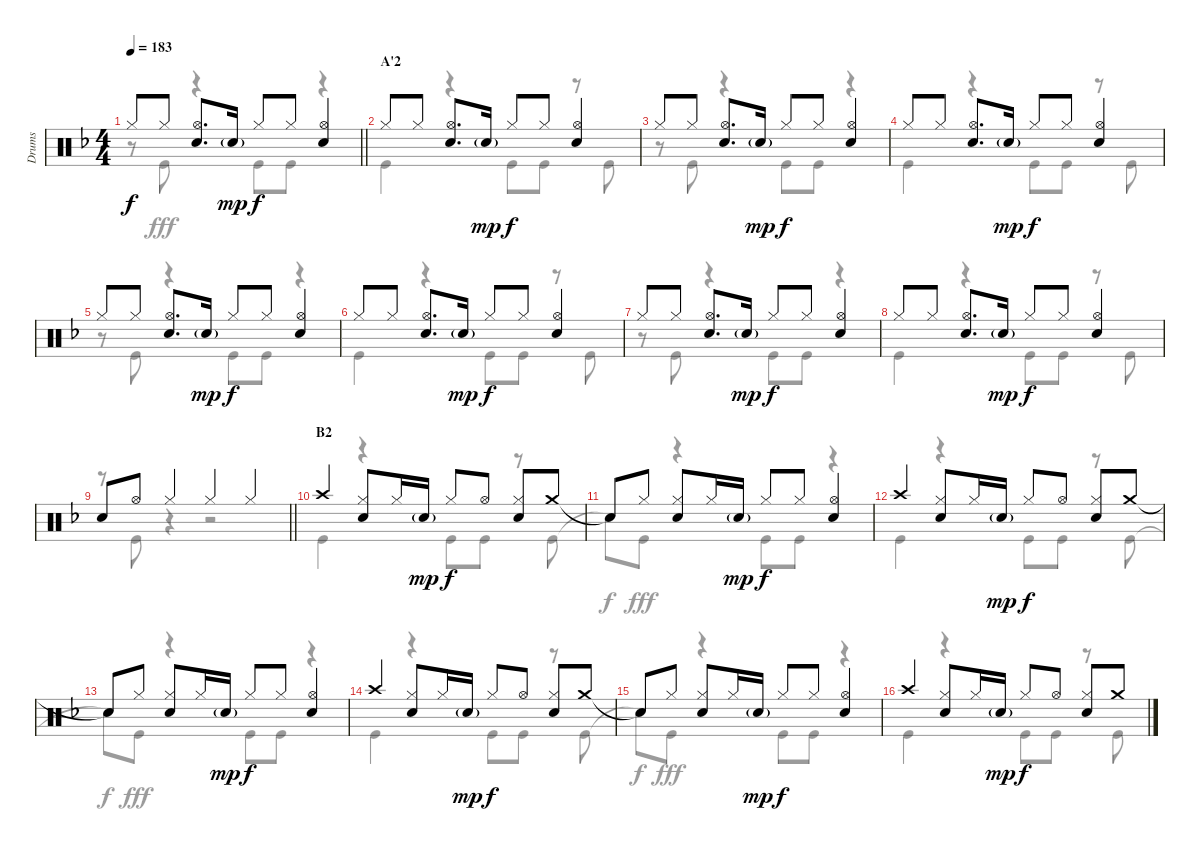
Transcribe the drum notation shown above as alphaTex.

\track ("Drums" "Drums") {instrument percussion}
\staff {score}
\articulation defaults
\voice
\ts (4 4)
\tempo 183
\clef neutral
\barLineRight lightlight
\ks f "Hi-Hat (closed)".8{dy f} "Hi-Hat (closed)".8
("Hi-Hat (open)" "Snare (hit) 2").8{d} "Snare (hit) 2"{g}.16{dy mp} "Hi-Hat (closed)".8{dy f} "Hi-Hat (closed)".8 ("Hi-Hat (open)" "Snare (hit) 2").4 |
\section ("" "A'2")
"Hi-Hat (closed)".8 "Hi-Hat (closed)".8 ("Hi-Hat (open)" "Snare (hit) 2").8{d} "Snare (hit) 2"{g}.16{dy mp} "Hi-Hat (closed)".8{dy f} "Hi-Hat (closed)".8 ("Hi-Hat (open)" "Snare (hit) 2").4 |
"Hi-Hat (closed)".8 "Hi-Hat (closed)".8 ("Hi-Hat (open)" "Snare (hit) 2").8{d} "Snare (hit) 2"{g}.16{dy mp} "Hi-Hat (closed)".8{dy f} "Hi-Hat (closed)".8 ("Hi-Hat (open)" "Snare (hit) 2").4 |
"Hi-Hat (closed)".8 "Hi-Hat (closed)".8 ("Hi-Hat (open)" "Snare (hit) 2").8{d} "Snare (hit) 2"{g}.16{dy mp} "Hi-Hat (closed)".8{dy f} "Hi-Hat (closed)".8 ("Hi-Hat (open)" "Snare (hit) 2").4 |
"Hi-Hat (closed)".8 "Hi-Hat (closed)".8 ("Hi-Hat (open)" "Snare (hit) 2").8{d} "Snare (hit) 2"{g}.16{dy mp} "Hi-Hat (closed)".8{dy f} "Hi-Hat (closed)".8 ("Hi-Hat (open)" "Snare (hit) 2").4 |
"Hi-Hat (closed)".8 "Hi-Hat (closed)".8 ("Hi-Hat (open)" "Snare (hit) 2").8{d} "Snare (hit) 2"{g}.16{dy mp} "Hi-Hat (closed)".8{dy f} "Hi-Hat (closed)".8 ("Hi-Hat (open)" "Snare (hit) 2").4 |
"Hi-Hat (closed)".8 "Hi-Hat (closed)".8 ("Hi-Hat (open)" "Snare (hit) 2").8{d} "Snare (hit) 2"{g}.16{dy mp} "Hi-Hat (closed)".8{dy f} "Hi-Hat (closed)".8 ("Hi-Hat (open)" "Snare (hit) 2").4 |
"Hi-Hat (closed)".8 "Hi-Hat (closed)".8 ("Hi-Hat (open)" "Snare (hit) 2").8{d} "Snare (hit) 2"{g}.16{dy mp} "Hi-Hat (closed)".8{dy f} "Hi-Hat (closed)".8 ("Hi-Hat (open)" "Snare (hit) 2").4 |
\barLineRight lightlight "Snare (hit) 2".8 "Hi-Hat (open)".8 "Hi-Hat (closed)".4 "Hi-Hat (closed)".4 "Hi-Hat (closed)".4
|
\section ("" "B2")
"Crash high (hit)".4 ("Hi-Hat (closed)" "Snare (hit) 2").8 "Hi-Hat (closed)".16 "Snare (hit) 2"{g}.16{dy mp} "Hi-Hat (closed)".8{dy f} "Hi-Hat (open)".8 ("Hi-Hat (closed)" "Snare (hit) 2").8 "Crash medium (hit)".8 |
"Snare (hit)"{t}.8 "Hi-Hat (closed)".8 ("Hi-Hat (closed)" "Snare (hit) 2").8 "Hi-Hat (closed)".16 "Snare (hit) 2"{g}.16{dy mp} "Hi-Hat (closed)".8{dy f} "Hi-Hat (closed)".8 ("Hi-Hat (open)" "Snare (hit) 2").4 |
"Crash high (hit)".4 ("Hi-Hat (closed)" "Snare (hit) 2").8 "Hi-Hat (closed)".16 "Snare (hit) 2"{g}.16{dy mp} "Hi-Hat (closed)".8{dy f} "Hi-Hat (open)".8 ("Hi-Hat (closed)" "Snare (hit) 2").8 "Crash medium (hit)".8 |
"Snare (hit)"{t}.8 "Hi-Hat (closed)".8 ("Hi-Hat (closed)" "Snare (hit) 2").8 "Hi-Hat (closed)".16 "Snare (hit) 2"{g}.16{dy mp} "Hi-Hat (closed)".8{dy f} "Hi-Hat (closed)".8 ("Hi-Hat (open)" "Snare (hit) 2").4 |
"Crash high (hit)".4 ("Hi-Hat (closed)" "Snare (hit) 2").8 "Hi-Hat (closed)".16 "Snare (hit) 2"{g}.16{dy mp} "Hi-Hat (closed)".8{dy f} "Hi-Hat (open)".8 ("Hi-Hat (closed)" "Snare (hit) 2").8 "Crash medium (hit)".8 |
"Snare (hit)"{t}.8 "Hi-Hat (closed)".8 ("Hi-Hat (closed)" "Snare (hit) 2").8 "Hi-Hat (closed)".16 "Snare (hit) 2"{g}.16{dy mp} "Hi-Hat (closed)".8{dy f} "Hi-Hat (closed)".8 ("Hi-Hat (open)" "Snare (hit) 2").4 |
"Crash high (hit)".4 ("Hi-Hat (closed)" "Snare (hit) 2").8 "Hi-Hat (closed)".16 "Snare (hit) 2"{g}.16{dy mp} "Hi-Hat (closed)".8{dy f} "Hi-Hat (open)".8 ("Hi-Hat (closed)" "Snare (hit) 2").8 "Crash medium (hit)".8
\voice
\clef neutral
\ottava regular
\simile none
\barLineRight lightlight
\ks f
r.8{dy fff} "Kick (hit)".8 r.4 "Kick (hit)".8 "Kick (hit)".8 r.4 |
"Kick (hit)".4 r.4 "Kick (hit)".8 "Kick (hit)".8 r.8 "Kick (hit)".8 |
r.8 "Kick (hit)".8 r.4 "Kick (hit)".8 "Kick (hit)".8 r.4 |
"Kick (hit)".4 r.4 "Kick (hit)".8 "Kick (hit)".8 r.8 "Kick (hit)".8 |
r.8 "Kick (hit)".8 r.4 "Kick (hit)".8 "Kick (hit)".8 r.4 |
"Kick (hit)".4 r.4 "Kick (hit)".8 "Kick (hit)".8 r.8 "Kick (hit)".8 |
r.8 "Kick (hit)".8 r.4 "Kick (hit)".8 "Kick (hit)".8 r.4 |
"Kick (hit)".4 r.4 "Kick (hit)".8 "Kick (hit)".8 r.8 "Kick (hit)".8 |
\barLineRight lightlight
r.8 "Kick (hit)".8 r.4 r.2 |
"Kick (hit)".4 r.4 "Kick (hit)".8 "Kick (hit)".8 r.8 "Kick (hit)".8 |
"Snare (hit)"{t}.8{dy f} "Kick (hit)".8{dy fff} r.4 "Kick (hit)".8 "Kick (hit)".8 r.4 |
"Kick (hit)".4 r.4 "Kick (hit)".8 "Kick (hit)".8 r.8 "Kick (hit)".8 |
"Snare (hit)"{t}.8{dy f} "Kick (hit)".8{dy fff} r.4 "Kick (hit)".8 "Kick (hit)".8 r.4 |
"Kick (hit)".4 r.4 "Kick (hit)".8 "Kick (hit)".8 r.8 "Kick (hit)".8 |
"Snare (hit)"{t}.8{dy f} "Kick (hit)".8{dy fff} r.4 "Kick (hit)".8 "Kick (hit)".8 r.4 |
"Kick (hit)".4 r.4 "Kick (hit)".8 "Kick (hit)".8 r.8 "Kick (hit)".8
